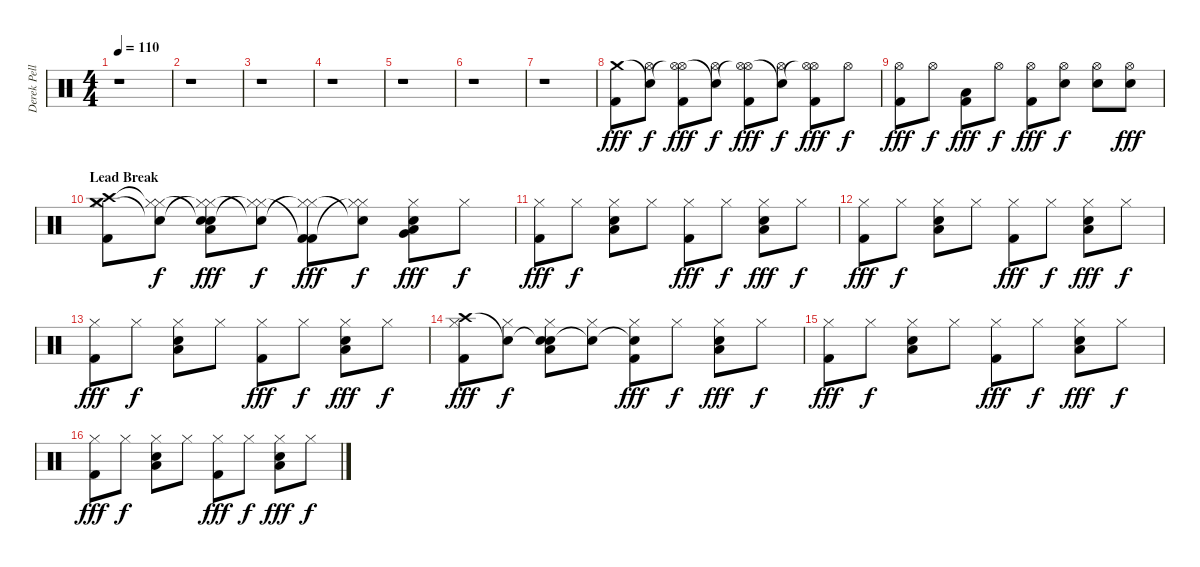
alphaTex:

\track ("Derek Pellici" "Derek Pell") {instrument percussion}
\staff {score}
\articulation defaults
\ts (4 4)
\tempo 110
\clef neutral
\ks c
r.1{dy f} |
r.1 |
r.1 |
r.1 |
r.1 |
r.1 |
r.1 |
("Crash medium (hit)" "Kick (hit) 2").8{dy fff} ("Snare (hit)"{t} "Hi-Hat (open)").8{dy f} ("Hi-Hat (open)"{t} "Hi-Hat (open)" "Kick (hit) 2").8{dy fff} ("Snare (hit)"{t} "Hi-Hat (open)").8{dy f} ("Hi-Hat (open)"{t} "Hi-Hat (open)" "Kick (hit) 2").8{dy fff} ("Snare (hit)"{t} "Hi-Hat (open)").8{dy f} ("Hi-Hat (open)"{t} "Hi-Hat (open)" "Kick (hit) 2").8{dy fff} "Hi-Hat (open)".8{dy f} |
("Hi-Hat (open)" "Kick (hit) 2").8{dy fff} "Hi-Hat (open)".8{dy f} ("Low Floor Tom (hit)" "Kick (hit) 2").8{dy fff} "Hi-Hat (open)".8{dy f} ("Hi-Hat (open)" "Kick (hit) 2").8{dy fff} ("Hi-Hat (open)" "Snare (hit) 2").8{dy f} ("Hi-Hat (open)" "Snare (hit) 2").8 ("Hi-Hat (open)" "Snare (hit) 2").8{dy fff} |
\section ("" "Lead Break")
("Crash high (hit)" "Crash medium (hit)" "Hi-Hat (closed)" "Kick (hit) 2").8 ("Hi-Hat (closed)"{t} "Snare (hit)"{t} "Hi-Hat (closed)").8{dy f} ("Snare (hit) 2"{t} "Hi-Hat (closed)"{t} "Hi-Hat (closed)" "Low Floor Tom (hit)" "Snare (hit) 2").8{dy fff} ("Hi-Hat (closed)"{t} "Snare (hit)"{t} "Hi-Hat (closed)").8{dy f} ("Kick (hit) 2"{t} "Hi-Hat (closed)"{t} "Hi-Hat (closed)" "Kick (hit) 2").8{dy fff} ("Hi-Hat (closed)"{t} "Snare (hit)"{t} "Hi-Hat (closed)").8{dy f} ("Very Low Tom (hit)" "Hi-Hat (closed)" "Low Floor Tom (hit)" "Snare (hit) 2").8{dy fff} "Hi-Hat (closed)".8{dy f} |
("Hi-Hat (closed)" "Kick (hit) 2").8{dy fff} "Hi-Hat (closed)".8{dy f} ("Hi-Hat (closed)" "Low Floor Tom (hit)" "Snare (hit) 2").8 "Hi-Hat (closed)".8 ("Hi-Hat (closed)" "Kick (hit) 2").8{dy fff} "Hi-Hat (closed)".8{dy f} ("Hi-Hat (closed)" "Low Floor Tom (hit)" "Snare (hit) 2").8{dy fff} "Hi-Hat (closed)".8{dy f} |
("Hi-Hat (closed)" "Kick (hit) 2").8{dy fff} "Hi-Hat (closed)".8{dy f} ("Hi-Hat (closed)" "Low Floor Tom (hit)" "Snare (hit) 2").8 "Hi-Hat (closed)".8 ("Hi-Hat (closed)" "Kick (hit) 2").8{dy fff} "Hi-Hat (closed)".8{dy f} ("Hi-Hat (closed)" "Low Floor Tom (hit)" "Snare (hit) 2").8{dy fff} "Hi-Hat (closed)".8{dy f} |
("Hi-Hat (closed)" "Kick (hit) 2").8{dy fff} "Hi-Hat (closed)".8{dy f} ("Hi-Hat (closed)" "Low Floor Tom (hit)" "Snare (hit) 2").8 "Hi-Hat (closed)".8 ("Hi-Hat (closed)" "Kick (hit) 2").8{dy fff} "Hi-Hat (closed)".8{dy f} ("Hi-Hat (closed)" "Low Floor Tom (hit)" "Snare (hit) 2").8{dy fff} "Hi-Hat (closed)".8{dy f} |
("Crash high (hit)" "Hi-Hat (closed)" "Kick (hit) 2").8{dy fff} ("Snare (hit)"{t} "Hi-Hat (closed)").8{dy f} ("Snare (hit)"{t} "Hi-Hat (closed)" "Low Floor Tom (hit)" "Snare (hit) 2").8 ("Snare (hit)"{t} "Hi-Hat (closed)").8 ("Snare (hit)"{t} "Hi-Hat (closed)" "Kick (hit) 2").8{dy fff} "Hi-Hat (closed)".8{dy f} ("Hi-Hat (closed)" "Low Floor Tom (hit)" "Snare (hit) 2").8{dy fff} "Hi-Hat (closed)".8{dy f} |
("Hi-Hat (closed)" "Kick (hit) 2").8{dy fff} "Hi-Hat (closed)".8{dy f} ("Hi-Hat (closed)" "Low Floor Tom (hit)" "Snare (hit) 2").8 "Hi-Hat (closed)".8 ("Hi-Hat (closed)" "Kick (hit) 2").8{dy fff} "Hi-Hat (closed)".8{dy f} ("Hi-Hat (closed)" "Low Floor Tom (hit)" "Snare (hit) 2").8{dy fff} "Hi-Hat (closed)".8{dy f} |
("Hi-Hat (closed)" "Kick (hit) 2").8{dy fff} "Hi-Hat (closed)".8{dy f} ("Hi-Hat (closed)" "Low Floor Tom (hit)" "Snare (hit) 2").8 "Hi-Hat (closed)".8 ("Hi-Hat (closed)" "Kick (hit) 2").8{dy fff} "Hi-Hat (closed)".8{dy f} ("Hi-Hat (closed)" "Low Floor Tom (hit)" "Snare (hit) 2").8{dy fff} "Hi-Hat (closed)".8{dy f}
